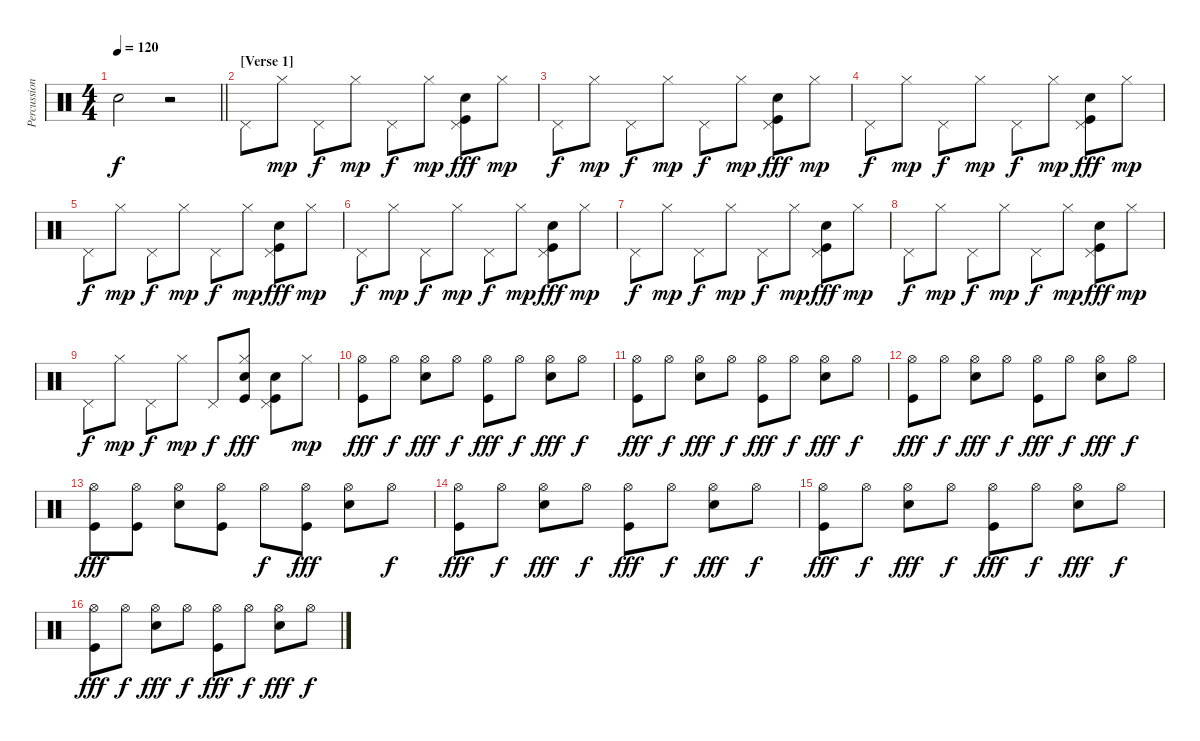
\track ("Percussion" "Percussion") {instrument percussion}
\staff {score}
\articulation defaults
\ts (4 4)
\tempo 120
\clef neutral
\barLineRight lightlight
\ks c "Snare (hit)"{t}.2{dy f}
r.2 |
\section ("" "[Verse 1]")
"Pedal Hi-Hat (hit)".8 "Hi-Hat (closed)".8{dy mp} "Pedal Hi-Hat (hit)".8{dy f} "Hi-Hat (closed)".8{dy mp} "Pedal Hi-Hat (hit)".8{dy f} "Hi-Hat (closed)".8{dy mp} ("Pedal Hi-Hat (hit)" "Snare (hit) 2" "Kick (hit)").8{dy fff} "Hi-Hat (closed)".8{dy mp} |
"Pedal Hi-Hat (hit)".8{dy f} "Hi-Hat (closed)".8{dy mp} "Pedal Hi-Hat (hit)".8{dy f} "Hi-Hat (closed)".8{dy mp} "Pedal Hi-Hat (hit)".8{dy f} "Hi-Hat (closed)".8{dy mp} ("Pedal Hi-Hat (hit)" "Snare (hit) 2" "Kick (hit)").8{dy fff} "Hi-Hat (closed)".8{dy mp} |
"Pedal Hi-Hat (hit)".8{dy f} "Hi-Hat (closed)".8{dy mp} "Pedal Hi-Hat (hit)".8{dy f} "Hi-Hat (closed)".8{dy mp} "Pedal Hi-Hat (hit)".8{dy f} "Hi-Hat (closed)".8{dy mp} ("Pedal Hi-Hat (hit)" "Snare (hit) 2" "Kick (hit)").8{dy fff} "Hi-Hat (closed)".8{dy mp} |
"Pedal Hi-Hat (hit)".8{dy f} "Hi-Hat (closed)".8{dy mp} "Pedal Hi-Hat (hit)".8{dy f} "Hi-Hat (closed)".8{dy mp} "Pedal Hi-Hat (hit)".8{dy f} "Hi-Hat (closed)".8{dy mp} ("Pedal Hi-Hat (hit)" "Snare (hit) 2" "Kick (hit)").8{dy fff} "Hi-Hat (closed)".8{dy mp} |
"Pedal Hi-Hat (hit)".8{dy f} "Hi-Hat (closed)".8{dy mp} "Pedal Hi-Hat (hit)".8{dy f} "Hi-Hat (closed)".8{dy mp} "Pedal Hi-Hat (hit)".8{dy f} "Hi-Hat (closed)".8{dy mp} ("Pedal Hi-Hat (hit)" "Snare (hit) 2" "Kick (hit)").8{dy fff} "Hi-Hat (closed)".8{dy mp} |
"Pedal Hi-Hat (hit)".8{dy f} "Hi-Hat (closed)".8{dy mp} "Pedal Hi-Hat (hit)".8{dy f} "Hi-Hat (closed)".8{dy mp} "Pedal Hi-Hat (hit)".8{dy f} "Hi-Hat (closed)".8{dy mp} ("Pedal Hi-Hat (hit)" "Snare (hit) 2" "Kick (hit)").8{dy fff} "Hi-Hat (closed)".8{dy mp} |
"Pedal Hi-Hat (hit)".8{dy f} "Hi-Hat (closed)".8{dy mp} "Pedal Hi-Hat (hit)".8{dy f} "Hi-Hat (closed)".8{dy mp} "Pedal Hi-Hat (hit)".8{dy f} "Hi-Hat (closed)".8{dy mp} ("Pedal Hi-Hat (hit)" "Snare (hit) 2" "Kick (hit)").8{dy fff} "Hi-Hat (closed)".8{dy mp} |
"Pedal Hi-Hat (hit)".8{dy f} "Hi-Hat (closed)".8{dy mp} "Pedal Hi-Hat (hit)".8{dy f} "Hi-Hat (closed)".8{dy mp} "Pedal Hi-Hat (hit)".8{dy f} ("Hi-Hat (closed)" "Snare (hit) 2" "Kick (hit)").8{dy fff} ("Pedal Hi-Hat (hit)" "Snare (hit) 2" "Kick (hit)").8 "Hi-Hat (closed)".8{dy mp} |
("Hi-Hat (open)" "Kick (hit)").8{dy fff} "Hi-Hat (open)".8{dy f} ("Hi-Hat (open)" "Snare (hit) 2").8{dy fff} "Hi-Hat (open)".8{dy f} ("Hi-Hat (open)" "Kick (hit)").8{dy fff} "Hi-Hat (open)".8{dy f} ("Hi-Hat (open)" "Snare (hit) 2").8{dy fff} "Hi-Hat (open)".8{dy f} |
("Hi-Hat (open)" "Kick (hit)").8{dy fff} "Hi-Hat (open)".8{dy f} ("Hi-Hat (open)" "Snare (hit) 2").8{dy fff} "Hi-Hat (open)".8{dy f} ("Hi-Hat (open)" "Kick (hit)").8{dy fff} "Hi-Hat (open)".8{dy f} ("Hi-Hat (open)" "Snare (hit) 2").8{dy fff} "Hi-Hat (open)".8{dy f} |
("Hi-Hat (open)" "Kick (hit)").8{dy fff} "Hi-Hat (open)".8{dy f} ("Hi-Hat (open)" "Snare (hit) 2").8{dy fff} "Hi-Hat (open)".8{dy f} ("Hi-Hat (open)" "Kick (hit)").8{dy fff} "Hi-Hat (open)".8{dy f} ("Hi-Hat (open)" "Snare (hit) 2").8{dy fff} "Hi-Hat (open)".8{dy f} |
("Hi-Hat (open)" "Kick (hit)").8{dy fff} ("Hi-Hat (open)" "Kick (hit)").8 ("Hi-Hat (open)" "Snare (hit) 2").8 ("Hi-Hat (open)" "Kick (hit)").8 "Hi-Hat (open)".8{dy f} ("Hi-Hat (open)" "Kick (hit)").8{dy fff} ("Hi-Hat (open)" "Snare (hit) 2").8 "Hi-Hat (open)".8{dy f} |
("Hi-Hat (open)" "Kick (hit)").8{dy fff} "Hi-Hat (open)".8{dy f} ("Hi-Hat (open)" "Snare (hit) 2").8{dy fff} "Hi-Hat (open)".8{dy f} ("Hi-Hat (open)" "Kick (hit)").8{dy fff} "Hi-Hat (open)".8{dy f} ("Hi-Hat (open)" "Snare (hit) 2").8{dy fff} "Hi-Hat (open)".8{dy f} |
("Hi-Hat (open)" "Kick (hit)").8{dy fff} "Hi-Hat (open)".8{dy f} ("Hi-Hat (open)" "Snare (hit) 2").8{dy fff} "Hi-Hat (open)".8{dy f} ("Hi-Hat (open)" "Kick (hit)").8{dy fff} "Hi-Hat (open)".8{dy f} ("Hi-Hat (open)" "Snare (hit) 2").8{dy fff} "Hi-Hat (open)".8{dy f} |
("Hi-Hat (open)" "Kick (hit)").8{dy fff} "Hi-Hat (open)".8{dy f} ("Hi-Hat (open)" "Snare (hit) 2").8{dy fff} "Hi-Hat (open)".8{dy f} ("Hi-Hat (open)" "Kick (hit)").8{dy fff} "Hi-Hat (open)".8{dy f} ("Hi-Hat (open)" "Snare (hit) 2").8{dy fff} "Hi-Hat (open)".8{dy f}
